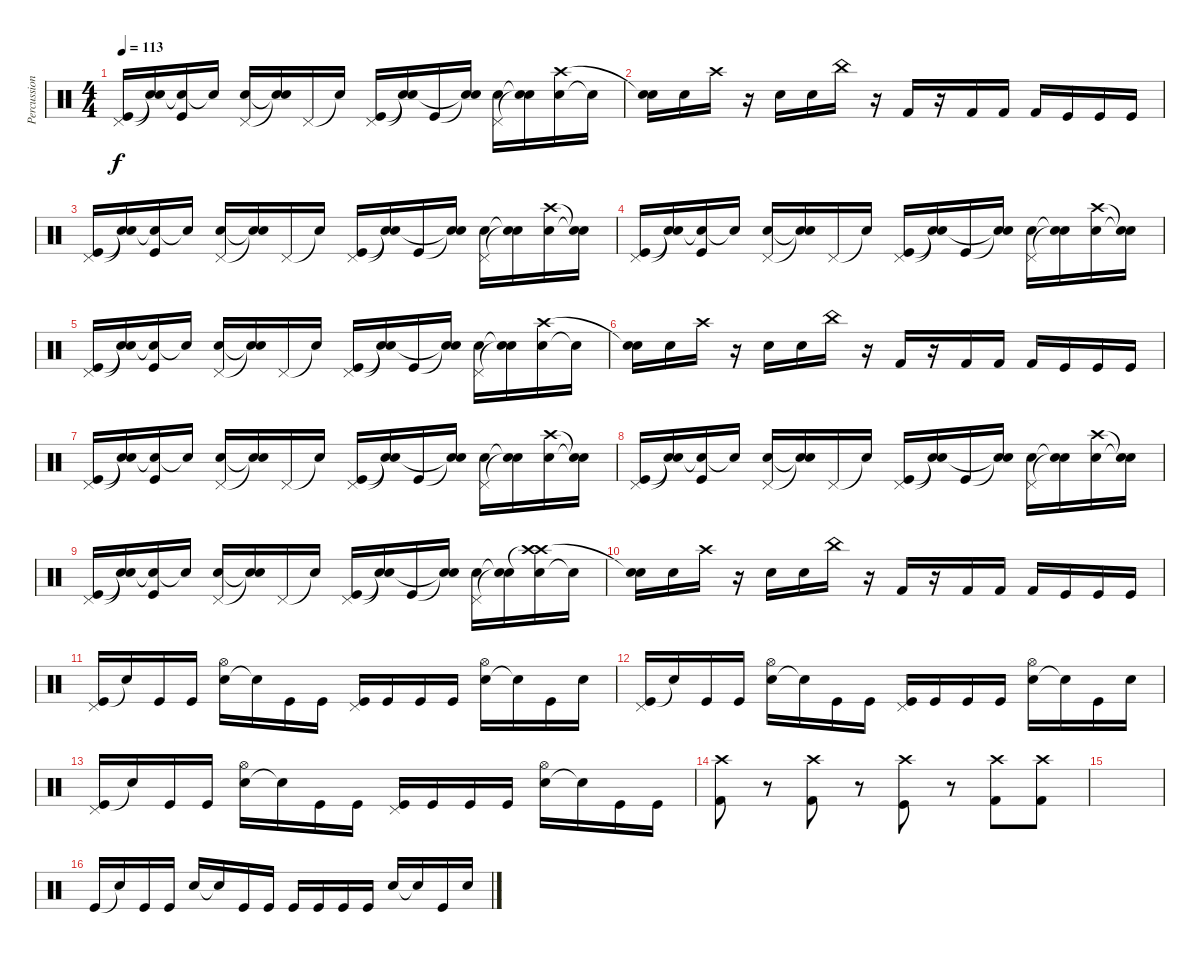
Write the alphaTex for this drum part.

\track ("Percussions" "Percussion") {instrument percussion}
\staff {score}
\articulation defaults
\ts (4 4)
\tempo 113
\clef neutral
\ks c
("Pedal Hi-Hat (hit)" "Kick (hit)").16{dy f} ("Snare (hit)"{t} "Snare (hit)"{t}).16 ("Snare (hit)"{t} "Kick (hit)").16 "Snare (hit)"{t}.16 ("Pedal Hi-Hat (hit)" "Electric Snare (hit)").16 ("Snare (hit)"{t} "Snare (hit)"{t}).16 "Pedal Hi-Hat (hit)".16 "Snare (hit)"{t}.16 ("Pedal Hi-Hat (hit)" "Kick (hit)").16 ("Snare (hit)"{t} "Snare (hit)"{t}).16 "Kick (hit)".16 ("Snare (hit)"{t} "Snare (hit)"{t}).16 ("Pedal Hi-Hat (hit)" "Electric Snare (hit)").16 ("Snare (hit)"{t} "Snare (hit)"{t}).16 ("Electric Snare (hit)" "Crash high (hit)").16 "Snare (hit)"{t}.16 |
("Electric Snare (hit)" "Snare (hit)"{t}).16 "Electric Snare (hit)".16 "Crash high (hit)".16 r.16 "Electric Snare (hit)".16 "Electric Snare (hit)".16 "China (hit)".16 r.16 "Kick (hit) 2".16 r.16 "Kick (hit) 2".16 "Kick (hit) 2".16 "Kick (hit) 2".16 "Kick (hit)".16 "Kick (hit)".16 "Kick (hit)".16 |
("Pedal Hi-Hat (hit)" "Kick (hit)").16 ("Snare (hit)"{t} "Snare (hit)"{t}).16 ("Snare (hit)"{t} "Kick (hit)").16 "Snare (hit)"{t}.16 ("Pedal Hi-Hat (hit)" "Electric Snare (hit)").16 ("Snare (hit)"{t} "Snare (hit)"{t}).16 "Pedal Hi-Hat (hit)".16 "Snare (hit)"{t}.16 ("Pedal Hi-Hat (hit)" "Kick (hit)").16 ("Snare (hit)"{t} "Snare (hit)"{t}).16 "Kick (hit)".16 ("Snare (hit)"{t} "Snare (hit)"{t}).16 ("Pedal Hi-Hat (hit)" "Electric Snare (hit)").16 ("Snare (hit)"{t} "Snare (hit)"{t}).16 ("Crash high (hit)" "Electric Snare (hit)").16 ("Snare (hit)"{t} "Snare (hit)"{t}).16 |
("Pedal Hi-Hat (hit)" "Kick (hit)").16 ("Snare (hit)"{t} "Snare (hit)"{t}).16 ("Snare (hit)"{t} "Kick (hit)").16 "Snare (hit)"{t}.16 ("Pedal Hi-Hat (hit)" "Electric Snare (hit)").16 ("Snare (hit)"{t} "Snare (hit)"{t}).16 "Pedal Hi-Hat (hit)".16 "Snare (hit)"{t}.16 ("Pedal Hi-Hat (hit)" "Kick (hit)").16 ("Snare (hit)"{t} "Snare (hit)"{t}).16 "Kick (hit)".16 ("Snare (hit)"{t} "Snare (hit)"{t}).16 ("Pedal Hi-Hat (hit)" "Electric Snare (hit)").16 ("Snare (hit)"{t} "Snare (hit)"{t}).16 ("Crash high (hit)" "Electric Snare (hit)").16 ("Snare (hit)"{t} "Snare (hit)"{t}).16 |
("Pedal Hi-Hat (hit)" "Kick (hit)").16 ("Snare (hit)"{t} "Snare (hit)"{t}).16 ("Snare (hit)"{t} "Kick (hit)").16 "Snare (hit)"{t}.16 ("Pedal Hi-Hat (hit)" "Electric Snare (hit)").16 ("Snare (hit)"{t} "Snare (hit)"{t}).16 "Pedal Hi-Hat (hit)".16 "Snare (hit)"{t}.16 ("Pedal Hi-Hat (hit)" "Kick (hit)").16 ("Snare (hit)"{t} "Snare (hit)"{t}).16 "Kick (hit)".16 ("Snare (hit)"{t} "Snare (hit)"{t}).16 ("Pedal Hi-Hat (hit)" "Electric Snare (hit)").16 ("Snare (hit)"{t} "Snare (hit)"{t}).16 ("Electric Snare (hit)" "Crash high (hit)").16 "Snare (hit)"{t}.16 |
("Electric Snare (hit)" "Snare (hit)"{t}).16 "Electric Snare (hit)".16 "Crash high (hit)".16 r.16 "Electric Snare (hit)".16 "Electric Snare (hit)".16 "China (hit)".16 r.16 "Kick (hit) 2".16 r.16 "Kick (hit) 2".16 "Kick (hit) 2".16 "Kick (hit) 2".16 "Kick (hit)".16 "Kick (hit)".16 "Kick (hit)".16 |
("Pedal Hi-Hat (hit)" "Kick (hit)").16 ("Snare (hit)"{t} "Snare (hit)"{t}).16 ("Snare (hit)"{t} "Kick (hit)").16 "Snare (hit)"{t}.16 ("Pedal Hi-Hat (hit)" "Electric Snare (hit)").16 ("Snare (hit)"{t} "Snare (hit)"{t}).16 "Pedal Hi-Hat (hit)".16 "Snare (hit)"{t}.16 ("Pedal Hi-Hat (hit)" "Kick (hit)").16 ("Snare (hit)"{t} "Snare (hit)"{t}).16 "Kick (hit)".16 ("Snare (hit)"{t} "Snare (hit)"{t}).16 ("Pedal Hi-Hat (hit)" "Electric Snare (hit)").16 ("Snare (hit)"{t} "Snare (hit)"{t}).16 ("Crash high (hit)" "Electric Snare (hit)").16 ("Snare (hit)"{t} "Snare (hit)"{t}).16 |
("Pedal Hi-Hat (hit)" "Kick (hit)").16 ("Snare (hit)"{t} "Snare (hit)"{t}).16 ("Snare (hit)"{t} "Kick (hit)").16 "Snare (hit)"{t}.16 ("Pedal Hi-Hat (hit)" "Electric Snare (hit)").16 ("Snare (hit)"{t} "Snare (hit)"{t}).16 "Pedal Hi-Hat (hit)".16 "Snare (hit)"{t}.16 ("Pedal Hi-Hat (hit)" "Kick (hit)").16 ("Snare (hit)"{t} "Snare (hit)"{t}).16 "Kick (hit)".16 ("Snare (hit)"{t} "Snare (hit)"{t}).16 ("Pedal Hi-Hat (hit)" "Electric Snare (hit)").16 ("Snare (hit)"{t} "Snare (hit)"{t}).16 ("Crash high (hit)" "Electric Snare (hit)").16 ("Snare (hit)"{t} "Snare (hit)"{t}).16 |
("Pedal Hi-Hat (hit)" "Kick (hit)").16 ("Snare (hit)"{t} "Snare (hit)"{t}).16 ("Snare (hit)"{t} "Kick (hit)").16 "Snare (hit)"{t}.16 ("Pedal Hi-Hat (hit)" "Electric Snare (hit)").16 ("Snare (hit)"{t} "Snare (hit)"{t}).16 "Pedal Hi-Hat (hit)".16 "Snare (hit)"{t}.16 ("Pedal Hi-Hat (hit)" "Kick (hit)").16 ("Snare (hit)"{t} "Snare (hit)"{t}).16 "Kick (hit)".16 ("Snare (hit)"{t} "Snare (hit)"{t}).16 ("Pedal Hi-Hat (hit)" "Electric Snare (hit)").16 ("Snare (hit)"{t} "Snare (hit)"{t}).16 ("Electric Snare (hit)" "Crash high (hit)"{t} "Crash high (hit)").16 "Snare (hit)"{t}.16 |
("Electric Snare (hit)" "Snare (hit)"{t}).16 "Electric Snare (hit)".16 "Crash high (hit)".16 r.16 "Electric Snare (hit)".16 "Electric Snare (hit)".16 "China (hit)".16 r.16 "Kick (hit) 2".16 r.16 "Kick (hit) 2".16 "Kick (hit) 2".16 "Kick (hit) 2".16 "Kick (hit)".16 "Kick (hit)".16 "Kick (hit)".16 |
("Kick (hit)" "Pedal Hi-Hat (hit)").16 "Snare (hit)"{t}.16 "Kick (hit)".16 "Kick (hit)".16 ("Snare (hit) 2" "Hi-Hat (open)").16 "Snare (hit)"{t}.16 "Kick (hit)".16 "Kick (hit)".16 ("Kick (hit)" "Pedal Hi-Hat (hit)").16 "Kick (hit)".16 "Kick (hit)".16 "Kick (hit)".16 ("Snare (hit) 2" "Hi-Hat (open)").16 "Snare (hit)"{t}.16 "Kick (hit)".16 "Snare (hit) 2".16 |
("Kick (hit)" "Pedal Hi-Hat (hit)").16 "Snare (hit)"{t}.16 "Kick (hit)".16 "Kick (hit)".16 ("Snare (hit) 2" "Hi-Hat (open)").16 "Snare (hit)"{t}.16 "Kick (hit)".16 "Kick (hit)".16 ("Kick (hit)" "Pedal Hi-Hat (hit)").16 "Kick (hit)".16 "Kick (hit)".16 "Kick (hit)".16 ("Snare (hit) 2" "Hi-Hat (open)").16 "Snare (hit)"{t}.16 "Kick (hit)".16 "Snare (hit) 2".16 |
("Kick (hit)" "Pedal Hi-Hat (hit)").16 "Snare (hit)"{t}.16 "Kick (hit)".16 "Kick (hit)".16 ("Snare (hit) 2" "Hi-Hat (open)").16 "Snare (hit)"{t}.16 "Kick (hit)".16 "Kick (hit)".16 ("Kick (hit)" "Pedal Hi-Hat (hit)").16 "Kick (hit)".16 "Kick (hit)".16 "Kick (hit)".16 ("Snare (hit) 2" "Hi-Hat (open)").16 "Snare (hit)"{t}.16 "Kick (hit)".16 "Kick (hit)".16 |
("Crash high (hit)" "Kick (hit) 2").8 r.8 ("Crash high (hit)" "Kick (hit) 2").8 r.8 ("Crash high (hit)" "Kick (hit)").8 r.8 ("Crash high (hit)" "Kick (hit) 2").8 ("Crash high (hit)" "Kick (hit) 2").8 |
|
"Kick (hit)".16 "Snare (hit)"{t}.16 "Kick (hit)".16 "Kick (hit)".16 "Snare (hit) 2".16 "Snare (hit)"{t}.16 "Kick (hit)".16 "Kick (hit)".16 "Kick (hit)".16 "Kick (hit)".16 "Kick (hit)".16 "Kick (hit)".16 "Snare (hit) 2".16 "Snare (hit)"{t}.16 "Kick (hit)".16 "Snare (hit) 2".16
